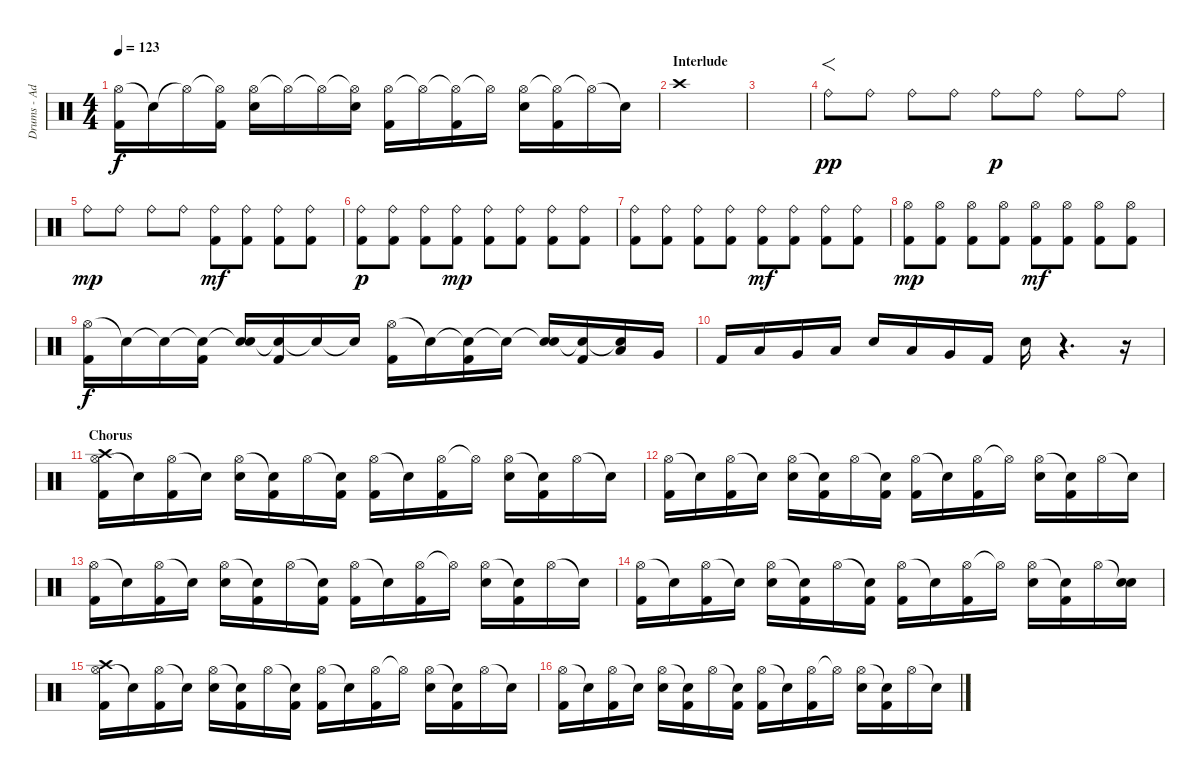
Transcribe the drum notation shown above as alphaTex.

\track ("Drums - Adam" "Drums - Ad") {instrument percussion}
\staff {score}
\articulation defaults
\ts (4 4)
\tempo 123
\clef neutral
\ks c
("Hi-Hat (open)" "Kick (hit) 2").16{dy f} "Snare (hit)"{t}.16 "Hi-Hat (open)"{t}.16 ("Hi-Hat (open)"{t} "Kick (hit) 2").16 ("Hi-Hat (open)" "Electric Snare (hit)").16 "Hi-Hat (open)"{t}.16 "Hi-Hat (open)"{t}.16 ("Hi-Hat (open)"{t} "Electric Snare (hit)").16 ("Hi-Hat (open)" "Kick (hit) 2").16 "Hi-Hat (open)"{t}.16 ("Hi-Hat (open)"{t} "Kick (hit) 2").16 "Hi-Hat (open)"{t}.16 ("Hi-Hat (open)" "Electric Snare (hit)").16 ("Hi-Hat (open)"{t} "Kick (hit) 2").16 "Hi-Hat (open)"{t}.16 "Snare (hit)"{t}.16 |
\section ("" "Interlude")
"Crash high (hit)".1 |
|
"Ride (bell)".8{f dy pp} "Ride (bell)".8 "Ride (bell)".8 "Ride (bell)".8 "Ride (bell)".8{dy p} "Ride (bell)".8 "Ride (bell)".8 "Ride (bell)".8 |
"Ride (bell)".8{dy mp} "Ride (bell)".8 "Ride (bell)".8 "Ride (bell)".8 ("Kick (hit) 2" "Ride (bell)").8{dy mf} ("Kick (hit) 2" "Ride (bell)").8 ("Kick (hit) 2" "Ride (bell)").8 ("Kick (hit) 2" "Ride (bell)").8 |
("Kick (hit) 2" "Ride (bell)").8{dy p} ("Kick (hit) 2" "Ride (bell)").8 ("Kick (hit) 2" "Ride (bell)").8 ("Kick (hit) 2" "Ride (bell)").8{dy mp} ("Kick (hit) 2" "Ride (bell)").8 ("Kick (hit) 2" "Ride (bell)").8 ("Kick (hit) 2" "Ride (bell)").8 ("Kick (hit) 2" "Ride (bell)").8 |
("Kick (hit) 2" "Ride (bell)").8 ("Kick (hit) 2" "Ride (bell)").8 ("Kick (hit) 2" "Ride (bell)").8 ("Kick (hit) 2" "Ride (bell)").8 ("Kick (hit) 2" "Ride (bell)").8{dy mf} ("Kick (hit) 2" "Ride (bell)").8 ("Kick (hit) 2" "Ride (bell)").8 ("Kick (hit) 2" "Ride (bell)").8 |
("Hi-Hat (open)" "Kick (hit) 2").8{dy mp} ("Hi-Hat (open)" "Kick (hit) 2").8 ("Hi-Hat (open)" "Kick (hit) 2").8 ("Hi-Hat (open)" "Kick (hit) 2").8 ("Hi-Hat (open)" "Kick (hit) 2").8{dy mf} ("Hi-Hat (open)" "Kick (hit) 2").8 ("Hi-Hat (open)" "Kick (hit) 2").8 ("Hi-Hat (open)" "Kick (hit) 2").8 |
("Hi-Hat (open)" "Kick (hit) 2").16{dy f} "Snare (hit)"{t}.16 "Snare (hit)"{t}.16 ("Snare (hit)"{t} "Kick (hit) 2").16 ("Snare (hit)"{t} "Electric Snare (hit)").16 ("Snare (hit)"{t} "Kick (hit) 2").16 "Snare (hit)"{t}.16 "Snare (hit)"{t}.16 ("Hi-Hat (open)" "Kick (hit) 2").16 "Snare (hit)"{t}.16 ("Snare (hit)"{t} "Kick (hit) 2").16 "Snare (hit)"{t}.16 ("Snare (hit)"{t} "Electric Snare (hit)").16 ("Snare (hit)"{t} "Kick (hit) 2").16 ("Snare (hit)"{t} "Low Tom (hit)").16 "Very Low Tom (hit)".16 |
"Kick (hit) 2".16 "Low Tom (hit)".16 "Very Low Tom (hit)".16 "Low Floor Tom (hit)".16 "Electric Snare (hit)".16 "Low Tom (hit)".16 "Very Low Tom (hit)".16 "Kick (hit) 2".16 "Electric Snare (hit)".16 r.4{d} r.16 |
\section ("" "Chorus")
("Hi-Hat (open)" "Kick (hit) 2" "Crash high (hit)").16 "Snare (hit)"{t}.16 ("Hi-Hat (open)" "Kick (hit) 2").16 "Snare (hit)"{t}.16 ("Hi-Hat (open)" "Electric Snare (hit)").16 ("Snare (hit)"{t} "Kick (hit) 2").16 "Hi-Hat (open)".16 ("Snare (hit)"{t} "Kick (hit) 2").16 ("Hi-Hat (open)" "Kick (hit) 2").16 "Snare (hit)"{t}.16 ("Hi-Hat (open)" "Kick (hit) 2").16 "Hi-Hat (open)"{t}.16 ("Hi-Hat (open)" "Electric Snare (hit)").16 ("Snare (hit)"{t} "Kick (hit) 2").16 "Hi-Hat (open)".16 "Snare (hit)"{t}.16 |
("Hi-Hat (open)" "Kick (hit) 2").16 "Snare (hit)"{t}.16 ("Hi-Hat (open)" "Kick (hit) 2").16 "Snare (hit)"{t}.16 ("Hi-Hat (open)" "Electric Snare (hit)").16 ("Snare (hit)"{t} "Kick (hit) 2").16 "Hi-Hat (open)".16 ("Snare (hit)"{t} "Kick (hit) 2").16 ("Hi-Hat (open)" "Kick (hit) 2").16 "Snare (hit)"{t}.16 ("Hi-Hat (open)" "Kick (hit) 2").16 "Hi-Hat (open)"{t}.16 ("Hi-Hat (open)" "Electric Snare (hit)").16 ("Snare (hit)"{t} "Kick (hit) 2").16 "Hi-Hat (open)".16 "Snare (hit)"{t}.16 |
("Hi-Hat (open)" "Kick (hit) 2").16 "Snare (hit)"{t}.16 ("Hi-Hat (open)" "Kick (hit) 2").16 "Snare (hit)"{t}.16 ("Hi-Hat (open)" "Electric Snare (hit)").16 ("Snare (hit)"{t} "Kick (hit) 2").16 "Hi-Hat (open)".16 ("Snare (hit)"{t} "Kick (hit) 2").16 ("Hi-Hat (open)" "Kick (hit) 2").16 "Snare (hit)"{t}.16 ("Hi-Hat (open)" "Kick (hit) 2").16 "Hi-Hat (open)"{t}.16 ("Hi-Hat (open)" "Electric Snare (hit)").16 ("Snare (hit)"{t} "Kick (hit) 2").16 "Hi-Hat (open)".16 "Snare (hit)"{t}.16 |
("Hi-Hat (open)" "Kick (hit) 2").16 "Snare (hit)"{t}.16 ("Hi-Hat (open)" "Kick (hit) 2").16 "Snare (hit)"{t}.16 ("Hi-Hat (open)" "Electric Snare (hit)").16 ("Snare (hit)"{t} "Kick (hit) 2").16 "Hi-Hat (open)".16 ("Snare (hit)"{t} "Kick (hit) 2").16 ("Hi-Hat (open)" "Kick (hit) 2").16 "Snare (hit)"{t}.16 ("Hi-Hat (open)" "Kick (hit) 2").16 "Hi-Hat (open)"{t}.16 ("Hi-Hat (open)" "Electric Snare (hit)").16 ("Snare (hit)"{t} "Kick (hit) 2").16 "Hi-Hat (open)".16 ("Snare (hit)"{t} "Electric Snare (hit)").16 |
("Hi-Hat (open)" "Kick (hit) 2" "Crash high (hit)").16 "Snare (hit)"{t}.16 ("Hi-Hat (open)" "Kick (hit) 2").16 "Snare (hit)"{t}.16 ("Hi-Hat (open)" "Electric Snare (hit)").16 ("Snare (hit)"{t} "Kick (hit) 2").16 "Hi-Hat (open)".16 ("Snare (hit)"{t} "Kick (hit) 2").16 ("Hi-Hat (open)" "Kick (hit) 2").16 "Snare (hit)"{t}.16 ("Hi-Hat (open)" "Kick (hit) 2").16 "Hi-Hat (open)"{t}.16 ("Hi-Hat (open)" "Electric Snare (hit)").16 ("Snare (hit)"{t} "Kick (hit) 2").16 "Hi-Hat (open)".16 "Snare (hit)"{t}.16 |
("Hi-Hat (open)" "Kick (hit) 2").16 "Snare (hit)"{t}.16 ("Hi-Hat (open)" "Kick (hit) 2").16 "Snare (hit)"{t}.16 ("Hi-Hat (open)" "Electric Snare (hit)").16 ("Snare (hit)"{t} "Kick (hit) 2").16 "Hi-Hat (open)".16 ("Snare (hit)"{t} "Kick (hit) 2").16 ("Hi-Hat (open)" "Kick (hit) 2").16 "Snare (hit)"{t}.16 ("Hi-Hat (open)" "Kick (hit) 2").16 "Hi-Hat (open)"{t}.16 ("Hi-Hat (open)" "Electric Snare (hit)").16 ("Snare (hit)"{t} "Kick (hit) 2").16 "Hi-Hat (open)".16 "Snare (hit)"{t}.16
